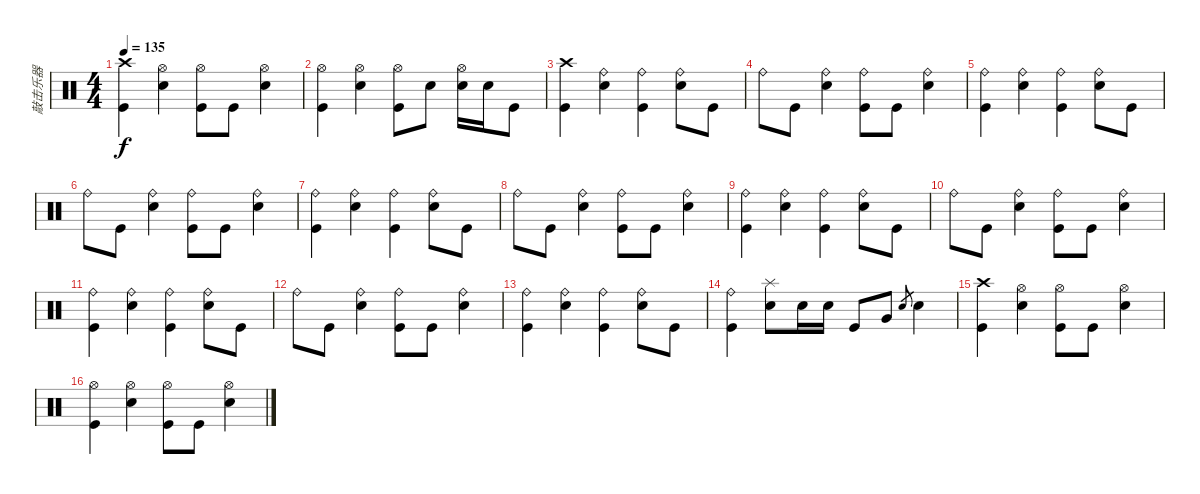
\track ("敲击乐器" "敲击乐器") {instrument percussion}
\staff {score}
\articulation defaults
\ts (4 4)
\tempo 135
\clef neutral
\ks c
("Crash high (hit)" "Kick (hit)").4{dy f} ("Hi-Hat (open)" "Electric Snare (hit)").4 ("Hi-Hat (open)" "Kick (hit)").8 "Kick (hit)".8 ("Hi-Hat (open)" "Electric Snare (hit)").4 |
("Hi-Hat (open)" "Kick (hit)").4 ("Hi-Hat (open)" "Electric Snare (hit)").4 ("Hi-Hat (open)" "Kick (hit)").8 "Electric Snare (hit)".8 ("Hi-Hat (open)" "Electric Snare (hit)").16 "Electric Snare (hit)".16 "Kick (hit)".8 |
("Crash high (hit)" "Kick (hit)").4 ("Ride (bell)" "Electric Snare (hit)").4 ("Ride (bell)" "Kick (hit)").4 ("Ride (bell)" "Electric Snare (hit)").8 "Kick (hit)".8 |
"Ride (bell)".8 "Kick (hit)".8 ("Ride (bell)" "Electric Snare (hit)").4 ("Ride (bell)" "Kick (hit)").8 "Kick (hit)".8 ("Ride (bell)" "Electric Snare (hit)").4 |
("Ride (bell)" "Kick (hit)").4 ("Ride (bell)" "Electric Snare (hit)").4 ("Ride (bell)" "Kick (hit)").4 ("Ride (bell)" "Electric Snare (hit)").8 "Kick (hit)".8 |
"Ride (bell)".8 "Kick (hit)".8 ("Ride (bell)" "Electric Snare (hit)").4 ("Ride (bell)" "Kick (hit)").8 "Kick (hit)".8 ("Ride (bell)" "Electric Snare (hit)").4 |
("Ride (bell)" "Kick (hit)").4 ("Ride (bell)" "Electric Snare (hit)").4 ("Ride (bell)" "Kick (hit)").4 ("Ride (bell)" "Electric Snare (hit)").8 "Kick (hit)".8 |
"Ride (bell)".8 "Kick (hit)".8 ("Ride (bell)" "Electric Snare (hit)").4 ("Ride (bell)" "Kick (hit)").8 "Kick (hit)".8 ("Ride (bell)" "Electric Snare (hit)").4 |
("Ride (bell)" "Kick (hit)").4 ("Ride (bell)" "Electric Snare (hit)").4 ("Ride (bell)" "Kick (hit)").4 ("Ride (bell)" "Electric Snare (hit)").8 "Kick (hit)".8 |
"Ride (bell)".8 "Kick (hit)".8 ("Ride (bell)" "Electric Snare (hit)").4 ("Ride (bell)" "Kick (hit)").8 "Kick (hit)".8 ("Ride (bell)" "Electric Snare (hit)").4 |
("Ride (bell)" "Kick (hit)").4 ("Ride (bell)" "Electric Snare (hit)").4 ("Ride (bell)" "Kick (hit)").4 ("Ride (bell)" "Electric Snare (hit)").8 "Kick (hit)".8 |
"Ride (bell)".8 "Kick (hit)".8 ("Ride (bell)" "Electric Snare (hit)").4 ("Ride (bell)" "Kick (hit)").8 "Kick (hit)".8 ("Ride (bell)" "Electric Snare (hit)").4 |
("Ride (bell)" "Kick (hit)").4 ("Ride (bell)" "Electric Snare (hit)").4 ("Ride (bell)" "Kick (hit)").4 ("Ride (bell)" "Electric Snare (hit)").8 "Kick (hit)".8 |
("Ride (bell)" "Kick (hit)").4 ("Splash (hit)" "Electric Snare (hit)").8 "Electric Snare (hit)".16 "Electric Snare (hit)".16 "Kick (hit)".8 "Very Low Tom (hit)".8 "Electric Snare (hit)".8{gr} "Electric Snare (hit)".4 |
("Crash high (hit)" "Kick (hit)").4 ("Hi-Hat (open)" "Electric Snare (hit)").4 ("Hi-Hat (open)" "Kick (hit)").8 "Kick (hit)".8 ("Hi-Hat (open)" "Electric Snare (hit)").4 |
("Hi-Hat (open)" "Kick (hit)").4 ("Hi-Hat (open)" "Electric Snare (hit)").4 ("Hi-Hat (open)" "Kick (hit)").8 "Kick (hit)".8 ("Hi-Hat (open)" "Electric Snare (hit)").4
